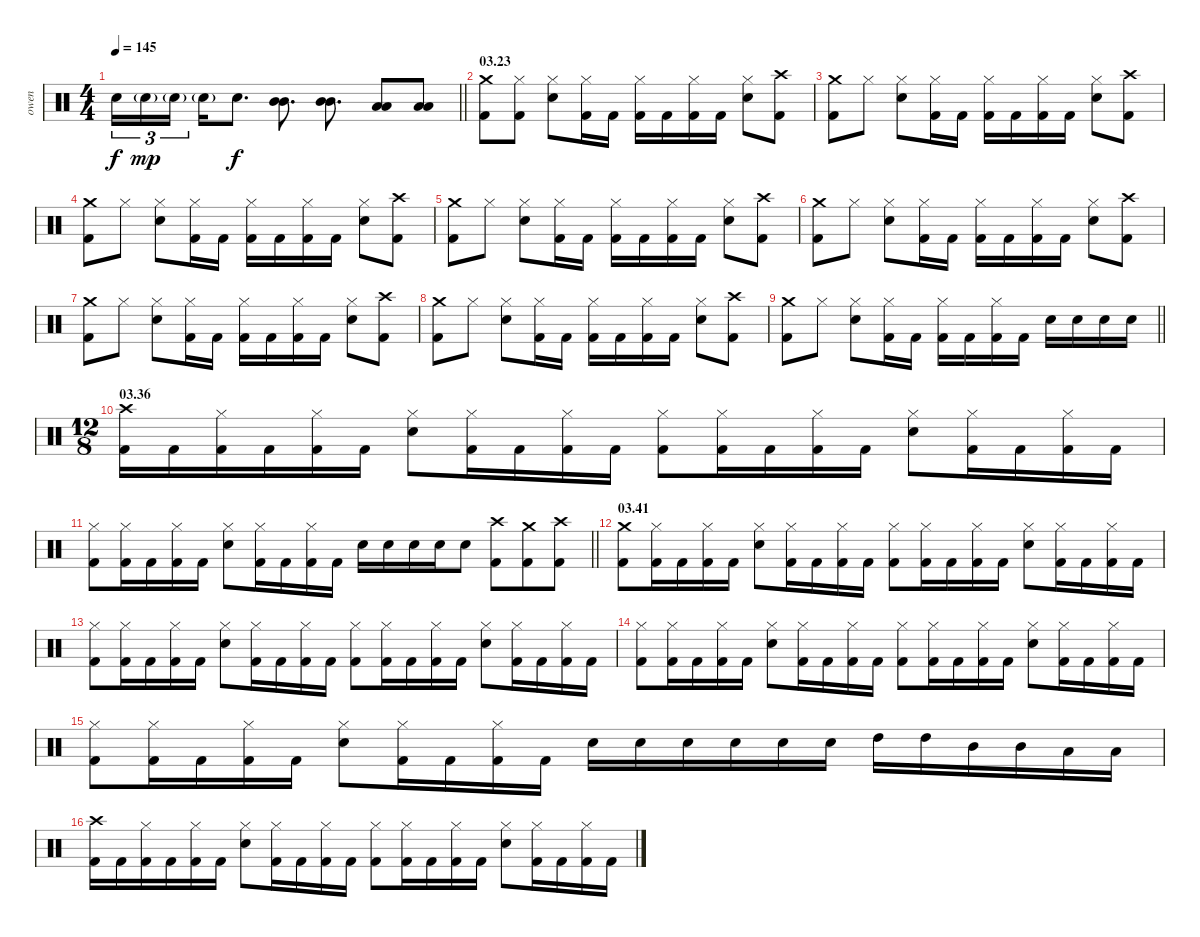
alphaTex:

\track ("owen" "owen") {instrument percussion}
\staff {score}
\articulation defaults
\ts (4 4)
\tempo 145
\clef neutral
\barLineRight lightlight
\ks c "Snare (hit) 2".16{tu (3 2) dy f} "Snare (hit) 2"{g}.16{tu (3 2) dy mp} "Snare (hit) 2"{g}.16{tu (3 2) beam splitsecondary} "Snare (hit) 2"{g}.16 "Snare (hit) 2".8{d dy f}
("Mid Tom (hit)" "Mid Tom (hit)").8{d} ("Mid Tom (hit)" "Mid Tom (hit)").8{d} ("Low Tom (hit)" "Low Tom (hit)").8 ("Low Tom (hit)" "Low Tom (hit)").8 |
\section ("" "03.23")
("Crash medium (hit)" "Kick (hit) 2").8 ("Hi-Hat (closed)" "Kick (hit) 2").8 ("Hi-Hat (closed)" "Snare (hit) 2").8 ("Hi-Hat (closed)" "Kick (hit) 2").16 "Kick (hit) 2".16 ("Hi-Hat (closed)" "Kick (hit) 2").16 "Kick (hit) 2".16 ("Hi-Hat (closed)" "Kick (hit) 2").16 "Kick (hit) 2".16 ("Hi-Hat (closed)" "Snare (hit) 2").8 ("Crash high (hit)" "Kick (hit) 2").8 |
("Crash medium (hit)" "Kick (hit) 2").8 "Hi-Hat (closed)".8 ("Hi-Hat (closed)" "Snare (hit) 2").8 ("Hi-Hat (closed)" "Kick (hit) 2").16 "Kick (hit) 2".16 ("Hi-Hat (closed)" "Kick (hit) 2").16 "Kick (hit) 2".16 ("Hi-Hat (closed)" "Kick (hit) 2").16 "Kick (hit) 2".16 ("Hi-Hat (closed)" "Snare (hit) 2").8 ("Crash high (hit)" "Kick (hit) 2").8 |
("Crash medium (hit)" "Kick (hit) 2").8 "Hi-Hat (closed)".8 ("Hi-Hat (closed)" "Snare (hit) 2").8 ("Hi-Hat (closed)" "Kick (hit) 2").16 "Kick (hit) 2".16 ("Hi-Hat (closed)" "Kick (hit) 2").16 "Kick (hit) 2".16 ("Hi-Hat (closed)" "Kick (hit) 2").16 "Kick (hit) 2".16 ("Hi-Hat (closed)" "Snare (hit) 2").8 ("Crash high (hit)" "Kick (hit) 2").8 |
("Crash medium (hit)" "Kick (hit) 2").8 "Hi-Hat (closed)".8 ("Hi-Hat (closed)" "Snare (hit) 2").8 ("Hi-Hat (closed)" "Kick (hit) 2").16 "Kick (hit) 2".16 ("Hi-Hat (closed)" "Kick (hit) 2").16 "Kick (hit) 2".16 ("Hi-Hat (closed)" "Kick (hit) 2").16 "Kick (hit) 2".16 ("Hi-Hat (closed)" "Snare (hit) 2").8 ("Crash high (hit)" "Kick (hit) 2").8 |
("Crash medium (hit)" "Kick (hit) 2").8 "Hi-Hat (closed)".8 ("Hi-Hat (closed)" "Snare (hit) 2").8 ("Hi-Hat (closed)" "Kick (hit) 2").16 "Kick (hit) 2".16 ("Hi-Hat (closed)" "Kick (hit) 2").16 "Kick (hit) 2".16 ("Hi-Hat (closed)" "Kick (hit) 2").16 "Kick (hit) 2".16 ("Hi-Hat (closed)" "Snare (hit) 2").8 ("Crash high (hit)" "Kick (hit) 2").8 |
("Crash medium (hit)" "Kick (hit) 2").8 "Hi-Hat (closed)".8 ("Hi-Hat (closed)" "Snare (hit) 2").8 ("Hi-Hat (closed)" "Kick (hit) 2").16 "Kick (hit) 2".16 ("Hi-Hat (closed)" "Kick (hit) 2").16 "Kick (hit) 2".16 ("Hi-Hat (closed)" "Kick (hit) 2").16 "Kick (hit) 2".16 ("Hi-Hat (closed)" "Snare (hit) 2").8 ("Crash high (hit)" "Kick (hit) 2").8 |
("Crash medium (hit)" "Kick (hit) 2").8 "Hi-Hat (closed)".8 ("Hi-Hat (closed)" "Snare (hit) 2").8 ("Hi-Hat (closed)" "Kick (hit) 2").16 "Kick (hit) 2".16 ("Hi-Hat (closed)" "Kick (hit) 2").16 "Kick (hit) 2".16 ("Hi-Hat (closed)" "Kick (hit) 2").16 "Kick (hit) 2".16 ("Hi-Hat (closed)" "Snare (hit) 2").8 ("Crash high (hit)" "Kick (hit) 2").8 |
\barLineRight lightlight
("Crash medium (hit)" "Kick (hit) 2").8 "Hi-Hat (closed)".8 ("Hi-Hat (closed)" "Snare (hit) 2").8 ("Hi-Hat (closed)" "Kick (hit) 2").16 "Kick (hit) 2".16 ("Hi-Hat (closed)" "Kick (hit) 2").16 "Kick (hit) 2".16 ("Hi-Hat (closed)" "Kick (hit) 2").16 "Kick (hit) 2".16 "Snare (hit) 2".16 "Snare (hit) 2".16 "Snare (hit) 2".16 "Snare (hit) 2".16 |
\ts (12 8)
\section ("" "03.36")
("Crash high (hit)" "Kick (hit) 2").16 "Kick (hit) 2".16 ("Hi-Hat (closed)" "Kick (hit) 2").16 "Kick (hit) 2".16 ("Hi-Hat (closed)" "Kick (hit) 2").16 "Kick (hit) 2".16 ("Hi-Hat (closed)" "Snare (hit) 2").8 ("Hi-Hat (closed)" "Kick (hit) 2").16 "Kick (hit) 2".16 ("Hi-Hat (closed)" "Kick (hit) 2").16 "Kick (hit) 2".16 ("Hi-Hat (closed)" "Kick (hit) 2").8 ("Hi-Hat (closed)" "Kick (hit) 2").16 "Kick (hit) 2".16 ("Hi-Hat (closed)" "Kick (hit) 2").16 "Kick (hit) 2".16 ("Hi-Hat (closed)" "Snare (hit) 2").8 ("Hi-Hat (closed)" "Kick (hit) 2").16 "Kick (hit) 2".16 ("Hi-Hat (closed)" "Kick (hit) 2").16 "Kick (hit) 2".16 |
\barLineRight lightlight
("Hi-Hat (closed)" "Kick (hit) 2").8 ("Hi-Hat (closed)" "Kick (hit) 2").16 "Kick (hit) 2".16 ("Hi-Hat (closed)" "Kick (hit) 2").16 "Kick (hit) 2".16 ("Hi-Hat (closed)" "Snare (hit) 2").8 ("Hi-Hat (closed)" "Kick (hit) 2").16 "Kick (hit) 2".16 ("Hi-Hat (closed)" "Kick (hit) 2").16 "Kick (hit) 2".16 "Snare (hit) 2".16 "Snare (hit) 2".16 "Snare (hit) 2".16 "Snare (hit) 2".16 "Snare (hit) 2".8 ("Crash high (hit)" "Kick (hit) 2").8 ("Crash medium (hit)" "Kick (hit) 2").8 ("Crash high (hit)" "Kick (hit) 2").8 |
\section ("" "03.41")
("Crash medium (hit)" "Kick (hit) 2").8 ("Hi-Hat (closed)" "Kick (hit) 2").16 "Kick (hit) 2".16 ("Hi-Hat (closed)" "Kick (hit) 2").16 "Kick (hit) 2".16 ("Hi-Hat (closed)" "Snare (hit) 2").8 ("Hi-Hat (closed)" "Kick (hit) 2").16 "Kick (hit) 2".16 ("Hi-Hat (closed)" "Kick (hit) 2").16 "Kick (hit) 2".16 ("Hi-Hat (closed)" "Kick (hit) 2").8 ("Hi-Hat (closed)" "Kick (hit) 2").16 "Kick (hit) 2".16 ("Hi-Hat (closed)" "Kick (hit) 2").16 "Kick (hit) 2".16 ("Hi-Hat (closed)" "Snare (hit) 2").8 ("Hi-Hat (closed)" "Kick (hit) 2").16 "Kick (hit) 2".16 ("Hi-Hat (closed)" "Kick (hit) 2").16 "Kick (hit) 2".16 |
("Hi-Hat (closed)" "Kick (hit) 2").8 ("Hi-Hat (closed)" "Kick (hit) 2").16 "Kick (hit) 2".16 ("Hi-Hat (closed)" "Kick (hit) 2").16 "Kick (hit) 2".16 ("Hi-Hat (closed)" "Snare (hit) 2").8 ("Hi-Hat (closed)" "Kick (hit) 2").16 "Kick (hit) 2".16 ("Hi-Hat (closed)" "Kick (hit) 2").16 "Kick (hit) 2".16 ("Hi-Hat (closed)" "Kick (hit) 2").8 ("Hi-Hat (closed)" "Kick (hit) 2").16 "Kick (hit) 2".16 ("Hi-Hat (closed)" "Kick (hit) 2").16 "Kick (hit) 2".16 ("Hi-Hat (closed)" "Snare (hit) 2").8 ("Hi-Hat (closed)" "Kick (hit) 2").16 "Kick (hit) 2".16 ("Hi-Hat (closed)" "Kick (hit) 2").16 "Kick (hit) 2".16 |
("Hi-Hat (closed)" "Kick (hit) 2").8 ("Hi-Hat (closed)" "Kick (hit) 2").16 "Kick (hit) 2".16 ("Hi-Hat (closed)" "Kick (hit) 2").16 "Kick (hit) 2".16 ("Hi-Hat (closed)" "Snare (hit) 2").8 ("Hi-Hat (closed)" "Kick (hit) 2").16 "Kick (hit) 2".16 ("Hi-Hat (closed)" "Kick (hit) 2").16 "Kick (hit) 2".16 ("Hi-Hat (closed)" "Kick (hit) 2").8 ("Hi-Hat (closed)" "Kick (hit) 2").16 "Kick (hit) 2".16 ("Hi-Hat (closed)" "Kick (hit) 2").16 "Kick (hit) 2".16 ("Hi-Hat (closed)" "Snare (hit) 2").8 ("Hi-Hat (closed)" "Kick (hit) 2").16 "Kick (hit) 2".16 ("Hi-Hat (closed)" "Kick (hit) 2").16 "Kick (hit) 2".16 |
("Hi-Hat (closed)" "Kick (hit) 2").8 ("Hi-Hat (closed)" "Kick (hit) 2").16 "Kick (hit) 2".16 ("Hi-Hat (closed)" "Kick (hit) 2").16 "Kick (hit) 2".16 ("Hi-Hat (closed)" "Snare (hit) 2").8 ("Hi-Hat (closed)" "Kick (hit) 2").16 "Kick (hit) 2".16 ("Hi-Hat (closed)" "Kick (hit) 2").16 "Kick (hit) 2".16 "Snare (hit) 2".16 "Snare (hit) 2".16 "Snare (hit) 2".16 "Snare (hit) 2".16 "Snare (hit) 2".16 "Snare (hit) 2".16 "High Tom (hit)".16 "High Tom (hit)".16 "Mid Tom (hit)".16 "Mid Tom (hit)".16 "Low Tom (hit)".16 "Low Tom (hit)".16 |
("Crash high (hit)" "Kick (hit) 2").16 "Kick (hit) 2".16 ("Hi-Hat (closed)" "Kick (hit) 2").16 "Kick (hit) 2".16 ("Hi-Hat (closed)" "Kick (hit) 2").16 "Kick (hit) 2".16 ("Hi-Hat (closed)" "Snare (hit) 2").8 ("Hi-Hat (closed)" "Kick (hit) 2").16 "Kick (hit) 2".16 ("Hi-Hat (closed)" "Kick (hit) 2").16 "Kick (hit) 2".16 ("Hi-Hat (closed)" "Kick (hit) 2").8 ("Hi-Hat (closed)" "Kick (hit) 2").16 "Kick (hit) 2".16 ("Hi-Hat (closed)" "Kick (hit) 2").16 "Kick (hit) 2".16 ("Hi-Hat (closed)" "Snare (hit) 2").8 ("Hi-Hat (closed)" "Kick (hit) 2").16 "Kick (hit) 2".16 ("Hi-Hat (closed)" "Kick (hit) 2").16 "Kick (hit) 2".16
